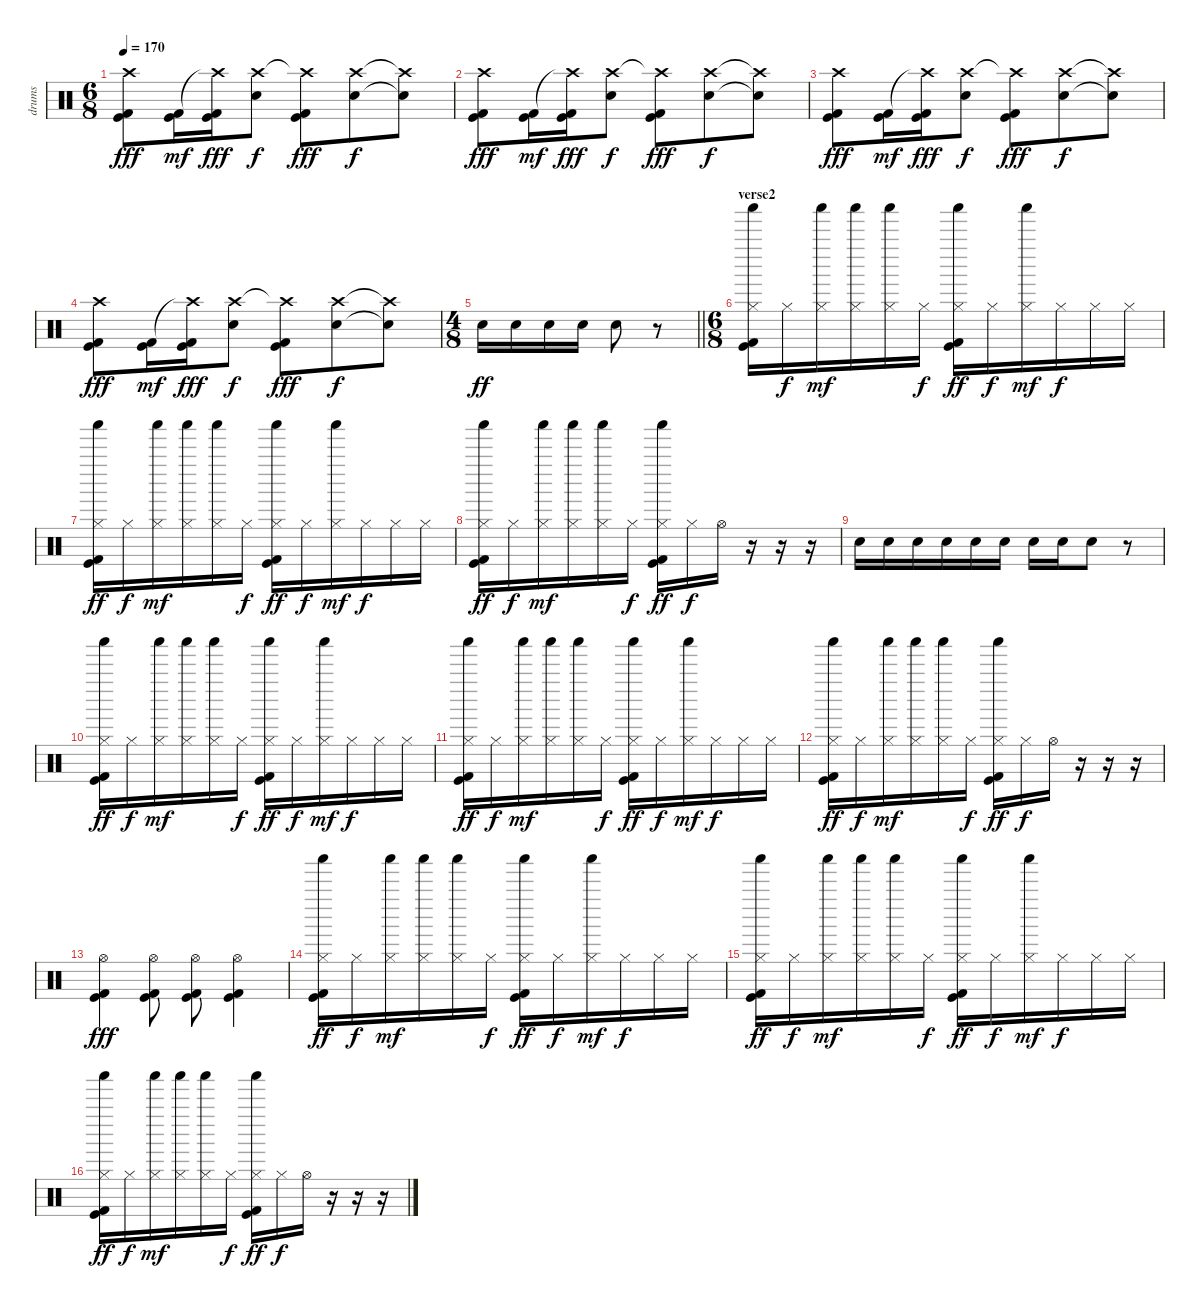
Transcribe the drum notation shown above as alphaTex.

\track ("drums " "drums ") {instrument percussion}
\staff {score}
\articulation defaults
\ts (6 8)
\tempo 170
\clef neutral
\ks c
("Crash high (hit)" "Kick (hit) 2" "Kick (hit)").8{dy fff} ("Kick (hit) 2" "Kick (hit)").16{dy mf} ("Crash high (hit)"{t} "Kick (hit) 2" "Kick (hit)").16{dy fff} ("Crash high (hit)" "Electric Snare (hit)").8{dy f} ("Crash high (hit)"{t} "Kick (hit) 2" "Kick (hit)").8{dy fff} ("Crash high (hit)" "Electric Snare (hit)").8{dy f} ("Crash high (hit)"{t} "Electric Snare (hit)"{t}).8 |
("Crash high (hit)" "Kick (hit) 2" "Kick (hit)").8{dy fff} ("Kick (hit) 2" "Kick (hit)").16{dy mf} ("Crash high (hit)"{t} "Kick (hit) 2" "Kick (hit)").16{dy fff} ("Crash high (hit)" "Electric Snare (hit)").8{dy f} ("Crash high (hit)"{t} "Kick (hit) 2" "Kick (hit)").8{dy fff} ("Crash high (hit)" "Electric Snare (hit)").8{dy f} ("Crash high (hit)"{t} "Electric Snare (hit)"{t}).8 |
("Crash high (hit)" "Kick (hit) 2" "Kick (hit)").8{dy fff} ("Kick (hit) 2" "Kick (hit)").16{dy mf} ("Crash high (hit)"{t} "Kick (hit) 2" "Kick (hit)").16{dy fff} ("Crash high (hit)" "Electric Snare (hit)").8{dy f} ("Crash high (hit)"{t} "Kick (hit) 2" "Kick (hit)").8{dy fff} ("Crash high (hit)" "Electric Snare (hit)").8{dy f} ("Crash high (hit)"{t} "Electric Snare (hit)"{t}).8 |
("Crash high (hit)" "Kick (hit) 2" "Kick (hit)").8{dy fff} ("Kick (hit) 2" "Kick (hit)").16{dy mf} ("Crash high (hit)"{t} "Kick (hit) 2" "Kick (hit)").16{dy fff} ("Crash high (hit)" "Electric Snare (hit)").8{dy f} ("Crash high (hit)"{t} "Kick (hit) 2" "Kick (hit)").8{dy fff} ("Crash high (hit)" "Electric Snare (hit)").8{dy f} ("Crash high (hit)"{t} "Electric Snare (hit)"{t}).8 |
\ts (4 8)
\barLineRight lightlight "Electric Snare (hit)".16{dy ff} "Electric Snare (hit)".16 "Electric Snare (hit)".16 "Electric Snare (hit)".16 "Electric Snare (hit)".8
r.8 |
\ts (6 8)
\section ("" "verse2")
("Shaker (hit)" "Hi-Hat (closed)" "Kick (hit) 2" "Kick (hit)").16 "Hi-Hat (closed)".16{dy f} ("Shaker (hit)" "Hi-Hat (closed)").16{dy mf} ("Shaker (hit)" "Hi-Hat (closed)").16 ("Shaker (hit)" "Hi-Hat (closed)").16 "Hi-Hat (closed)".16{dy f} ("Shaker (hit)" "Hi-Hat (closed)" "Kick (hit) 2" "Kick (hit)").16{dy ff} "Hi-Hat (closed)".16{dy f} ("Shaker (hit)" "Hi-Hat (closed)").16{dy mf} "Hi-Hat (closed)".16{dy f} "Hi-Hat (closed)".16 "Hi-Hat (closed)".16 |
("Shaker (hit)" "Hi-Hat (closed)" "Kick (hit) 2" "Kick (hit)").16{dy ff} "Hi-Hat (closed)".16{dy f} ("Shaker (hit)" "Hi-Hat (closed)").16{dy mf} ("Shaker (hit)" "Hi-Hat (closed)").16 ("Shaker (hit)" "Hi-Hat (closed)").16 "Hi-Hat (closed)".16{dy f} ("Shaker (hit)" "Hi-Hat (closed)" "Kick (hit) 2" "Kick (hit)").16{dy ff} "Hi-Hat (closed)".16{dy f} ("Shaker (hit)" "Hi-Hat (closed)").16{dy mf} "Hi-Hat (closed)".16{dy f} "Hi-Hat (closed)".16 "Hi-Hat (closed)".16 |
("Shaker (hit)" "Hi-Hat (closed)" "Kick (hit) 2" "Kick (hit)").16{dy ff} "Hi-Hat (closed)".16{dy f} ("Shaker (hit)" "Hi-Hat (closed)").16{dy mf} ("Shaker (hit)" "Hi-Hat (closed)").16 ("Shaker (hit)" "Hi-Hat (closed)").16 "Hi-Hat (closed)".16{dy f} ("Shaker (hit)" "Hi-Hat (closed)" "Kick (hit) 2" "Kick (hit)").16{dy ff} "Hi-Hat (closed)".16{dy f} "Hi-Hat (open)".16 r.16 r.16 r.16 |
"Electric Snare (hit)".16 "Electric Snare (hit)".16 "Electric Snare (hit)".16 "Electric Snare (hit)".16 "Electric Snare (hit)".16 "Electric Snare (hit)".16 "Electric Snare (hit)".16 "Electric Snare (hit)".16 "Electric Snare (hit)".8 r.8 |
("Shaker (hit)" "Hi-Hat (closed)" "Kick (hit) 2" "Kick (hit)").16{dy ff} "Hi-Hat (closed)".16{dy f} ("Shaker (hit)" "Hi-Hat (closed)").16{dy mf} ("Shaker (hit)" "Hi-Hat (closed)").16 ("Shaker (hit)" "Hi-Hat (closed)").16 "Hi-Hat (closed)".16{dy f} ("Shaker (hit)" "Hi-Hat (closed)" "Kick (hit) 2" "Kick (hit)").16{dy ff} "Hi-Hat (closed)".16{dy f} ("Shaker (hit)" "Hi-Hat (closed)").16{dy mf} "Hi-Hat (closed)".16{dy f} "Hi-Hat (closed)".16 "Hi-Hat (closed)".16 |
("Shaker (hit)" "Hi-Hat (closed)" "Kick (hit) 2" "Kick (hit)").16{dy ff} "Hi-Hat (closed)".16{dy f} ("Shaker (hit)" "Hi-Hat (closed)").16{dy mf} ("Shaker (hit)" "Hi-Hat (closed)").16 ("Shaker (hit)" "Hi-Hat (closed)").16 "Hi-Hat (closed)".16{dy f} ("Shaker (hit)" "Hi-Hat (closed)" "Kick (hit) 2" "Kick (hit)").16{dy ff} "Hi-Hat (closed)".16{dy f} ("Shaker (hit)" "Hi-Hat (closed)").16{dy mf} "Hi-Hat (closed)".16{dy f} "Hi-Hat (closed)".16 "Hi-Hat (closed)".16 |
("Shaker (hit)" "Hi-Hat (closed)" "Kick (hit) 2" "Kick (hit)").16{dy ff} "Hi-Hat (closed)".16{dy f} ("Shaker (hit)" "Hi-Hat (closed)").16{dy mf} ("Shaker (hit)" "Hi-Hat (closed)").16 ("Shaker (hit)" "Hi-Hat (closed)").16 "Hi-Hat (closed)".16{dy f} ("Shaker (hit)" "Hi-Hat (closed)" "Kick (hit) 2" "Kick (hit)").16{dy ff} "Hi-Hat (closed)".16{dy f} "Hi-Hat (open)".16 r.16 r.16 r.16 |
("Hi-Hat (open)" "Kick (hit) 2" "Kick (hit)").4{dy fff} ("Hi-Hat (open)" "Kick (hit) 2" "Kick (hit)").8 ("Hi-Hat (open)" "Kick (hit) 2" "Kick (hit)").8 ("Hi-Hat (open)" "Kick (hit) 2" "Kick (hit)").4 |
("Shaker (hit)" "Hi-Hat (closed)" "Kick (hit) 2" "Kick (hit)").16{dy ff} "Hi-Hat (closed)".16{dy f} ("Shaker (hit)" "Hi-Hat (closed)").16{dy mf} ("Shaker (hit)" "Hi-Hat (closed)").16 ("Shaker (hit)" "Hi-Hat (closed)").16 "Hi-Hat (closed)".16{dy f} ("Shaker (hit)" "Hi-Hat (closed)" "Kick (hit) 2" "Kick (hit)").16{dy ff} "Hi-Hat (closed)".16{dy f} ("Shaker (hit)" "Hi-Hat (closed)").16{dy mf} "Hi-Hat (closed)".16{dy f} "Hi-Hat (closed)".16 "Hi-Hat (closed)".16 |
("Shaker (hit)" "Hi-Hat (closed)" "Kick (hit) 2" "Kick (hit)").16{dy ff} "Hi-Hat (closed)".16{dy f} ("Shaker (hit)" "Hi-Hat (closed)").16{dy mf} ("Shaker (hit)" "Hi-Hat (closed)").16 ("Shaker (hit)" "Hi-Hat (closed)").16 "Hi-Hat (closed)".16{dy f} ("Shaker (hit)" "Hi-Hat (closed)" "Kick (hit) 2" "Kick (hit)").16{dy ff} "Hi-Hat (closed)".16{dy f} ("Shaker (hit)" "Hi-Hat (closed)").16{dy mf} "Hi-Hat (closed)".16{dy f} "Hi-Hat (closed)".16 "Hi-Hat (closed)".16 |
("Shaker (hit)" "Hi-Hat (closed)" "Kick (hit) 2" "Kick (hit)").16{dy ff} "Hi-Hat (closed)".16{dy f} ("Shaker (hit)" "Hi-Hat (closed)").16{dy mf} ("Shaker (hit)" "Hi-Hat (closed)").16 ("Shaker (hit)" "Hi-Hat (closed)").16 "Hi-Hat (closed)".16{dy f} ("Shaker (hit)" "Hi-Hat (closed)" "Kick (hit) 2" "Kick (hit)").16{dy ff} "Hi-Hat (closed)".16{dy f} "Hi-Hat (open)".16 r.16 r.16 r.16
